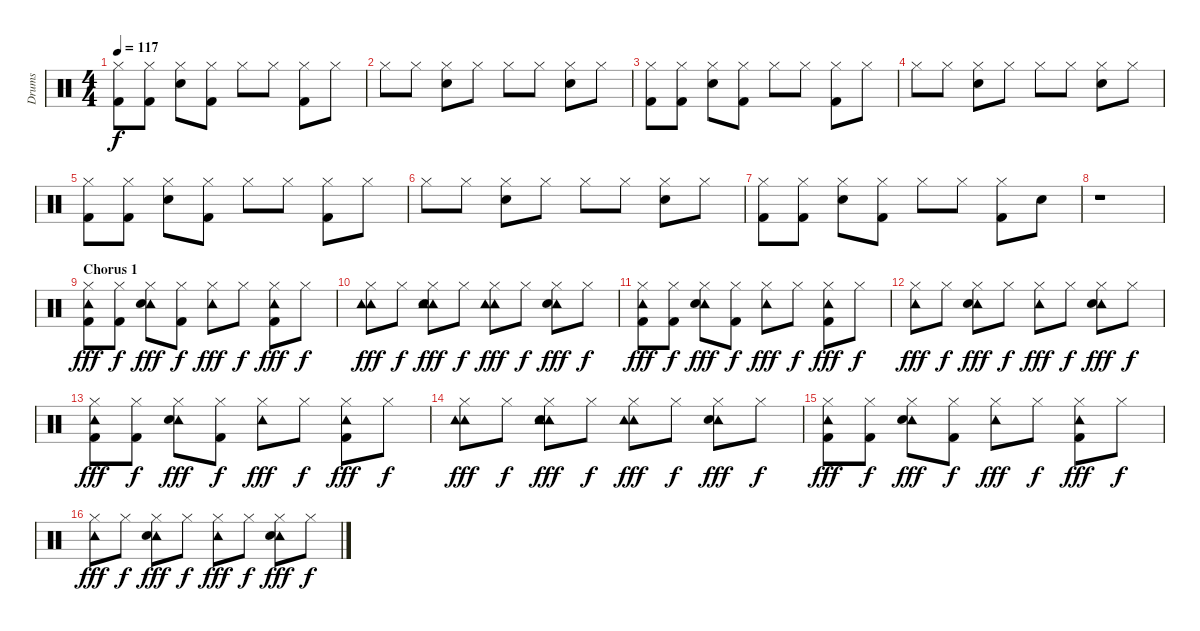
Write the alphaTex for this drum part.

\track ("Drums" "Drums") {instrument percussion}
\staff {score}
\articulation defaults
\ts (4 4)
\tempo 117
\clef neutral
\ks c
("Hi-Hat (closed)" "Kick (hit) 2").8{dy f} ("Hi-Hat (closed)" "Kick (hit) 2").8 ("Hi-Hat (closed)" "Snare (hit) 2").8 ("Hi-Hat (closed)" "Kick (hit) 2").8 "Hi-Hat (closed)".8 "Hi-Hat (closed)".8 ("Hi-Hat (closed)" "Kick (hit) 2").8 "Hi-Hat (closed)".8 |
"Hi-Hat (closed)".8 "Hi-Hat (closed)".8 ("Hi-Hat (closed)" "Snare (hit) 2").8 "Hi-Hat (closed)".8 "Hi-Hat (closed)".8 "Hi-Hat (closed)".8 ("Hi-Hat (closed)" "Snare (hit) 2").8 "Hi-Hat (closed)".8 |
("Hi-Hat (closed)" "Kick (hit) 2").8 ("Hi-Hat (closed)" "Kick (hit) 2").8 ("Hi-Hat (closed)" "Snare (hit) 2").8 ("Hi-Hat (closed)" "Kick (hit) 2").8 "Hi-Hat (closed)".8 "Hi-Hat (closed)".8 ("Hi-Hat (closed)" "Kick (hit) 2").8 "Hi-Hat (closed)".8 |
"Hi-Hat (closed)".8 "Hi-Hat (closed)".8 ("Hi-Hat (closed)" "Snare (hit) 2").8 "Hi-Hat (closed)".8 "Hi-Hat (closed)".8 "Hi-Hat (closed)".8 ("Hi-Hat (closed)" "Snare (hit) 2").8 "Hi-Hat (closed)".8 |
("Hi-Hat (closed)" "Kick (hit) 2").8 ("Hi-Hat (closed)" "Kick (hit) 2").8 ("Hi-Hat (closed)" "Snare (hit) 2").8 ("Hi-Hat (closed)" "Kick (hit) 2").8 "Hi-Hat (closed)".8 "Hi-Hat (closed)".8 ("Hi-Hat (closed)" "Kick (hit) 2").8 "Hi-Hat (closed)".8 |
"Hi-Hat (closed)".8 "Hi-Hat (closed)".8 ("Hi-Hat (closed)" "Snare (hit) 2").8 "Hi-Hat (closed)".8 "Hi-Hat (closed)".8 "Hi-Hat (closed)".8 ("Hi-Hat (closed)" "Snare (hit) 2").8 "Hi-Hat (closed)".8 |
("Hi-Hat (closed)" "Kick (hit) 2").8 ("Hi-Hat (closed)" "Kick (hit) 2").8 ("Hi-Hat (closed)" "Snare (hit) 2").8 ("Hi-Hat (closed)" "Kick (hit) 2").8 "Hi-Hat (closed)".8 "Hi-Hat (closed)".8 ("Hi-Hat (closed)" "Kick (hit) 2").8 "Snare (hit)".8 |
r.1 |
\section ("" "Chorus 1")
("Tambourine (hit)" "Hi-Hat (closed)" "Kick (hit) 2").8{dy fff} ("Hi-Hat (closed)" "Kick (hit) 2").8{dy f} ("Tambourine (hit)" "Hi-Hat (closed)" "Snare (hit) 2").8{dy fff} ("Hi-Hat (closed)" "Kick (hit) 2").8{dy f} ("Tambourine (hit)" "Hi-Hat (closed)").8{dy fff} "Hi-Hat (closed)".8{dy f} ("Tambourine (hit)" "Hi-Hat (closed)" "Kick (hit) 2").8{dy fff} "Hi-Hat (closed)".8{dy f} |
("Tambourine (hit)" "Tambourine (hit)" "Hi-Hat (closed)").8{dy fff} "Hi-Hat (closed)".8{dy f} ("Tambourine (hit)" "Tambourine (hit)" "Hi-Hat (closed)" "Snare (hit) 2").8{dy fff} "Hi-Hat (closed)".8{dy f} ("Tambourine (hit)" "Tambourine (hit)" "Hi-Hat (closed)").8{dy fff} "Hi-Hat (closed)".8{dy f} ("Tambourine (hit)" "Hi-Hat (closed)" "Snare (hit) 2").8{dy fff} "Hi-Hat (closed)".8{dy f} |
("Tambourine (hit)" "Hi-Hat (closed)" "Kick (hit) 2").8{dy fff} ("Hi-Hat (closed)" "Kick (hit) 2").8{dy f} ("Tambourine (hit)" "Hi-Hat (closed)" "Snare (hit) 2").8{dy fff} ("Hi-Hat (closed)" "Kick (hit) 2").8{dy f} ("Tambourine (hit)" "Hi-Hat (closed)").8{dy fff} "Hi-Hat (closed)".8{dy f} ("Tambourine (hit)" "Hi-Hat (closed)" "Kick (hit) 2").8{dy fff} "Hi-Hat (closed)".8{dy f} |
("Tambourine (hit)" "Hi-Hat (closed)").8{dy fff} "Hi-Hat (closed)".8{dy f} ("Tambourine (hit)" "Hi-Hat (closed)" "Snare (hit) 2").8{dy fff} "Hi-Hat (closed)".8{dy f} ("Tambourine (hit)" "Hi-Hat (closed)").8{dy fff} "Hi-Hat (closed)".8{dy f} ("Tambourine (hit)" "Hi-Hat (closed)" "Snare (hit) 2").8{dy fff} "Hi-Hat (closed)".8{dy f} |
("Tambourine (hit)" "Hi-Hat (closed)" "Kick (hit) 2").8{dy fff} ("Hi-Hat (closed)" "Kick (hit) 2").8{dy f} ("Tambourine (hit)" "Hi-Hat (closed)" "Snare (hit) 2").8{dy fff} ("Hi-Hat (closed)" "Kick (hit) 2").8{dy f} ("Tambourine (hit)" "Hi-Hat (closed)").8{dy fff} "Hi-Hat (closed)".8{dy f} ("Tambourine (hit)" "Hi-Hat (closed)" "Kick (hit) 2").8{dy fff} "Hi-Hat (closed)".8{dy f} |
("Tambourine (hit)" "Tambourine (hit)" "Hi-Hat (closed)").8{dy fff} "Hi-Hat (closed)".8{dy f} ("Tambourine (hit)" "Tambourine (hit)" "Hi-Hat (closed)" "Snare (hit) 2").8{dy fff} "Hi-Hat (closed)".8{dy f} ("Tambourine (hit)" "Tambourine (hit)" "Hi-Hat (closed)").8{dy fff} "Hi-Hat (closed)".8{dy f} ("Tambourine (hit)" "Hi-Hat (closed)" "Snare (hit) 2").8{dy fff} "Hi-Hat (closed)".8{dy f} |
("Tambourine (hit)" "Hi-Hat (closed)" "Kick (hit) 2").8{dy fff} ("Hi-Hat (closed)" "Kick (hit) 2").8{dy f} ("Tambourine (hit)" "Hi-Hat (closed)" "Snare (hit) 2").8{dy fff} ("Hi-Hat (closed)" "Kick (hit) 2").8{dy f} ("Tambourine (hit)" "Hi-Hat (closed)").8{dy fff} "Hi-Hat (closed)".8{dy f} ("Tambourine (hit)" "Hi-Hat (closed)" "Kick (hit) 2").8{dy fff} "Hi-Hat (closed)".8{dy f} |
("Tambourine (hit)" "Hi-Hat (closed)").8{dy fff} "Hi-Hat (closed)".8{dy f} ("Tambourine (hit)" "Hi-Hat (closed)" "Snare (hit) 2").8{dy fff} "Hi-Hat (closed)".8{dy f} ("Tambourine (hit)" "Hi-Hat (closed)").8{dy fff} "Hi-Hat (closed)".8{dy f} ("Tambourine (hit)" "Hi-Hat (closed)" "Snare (hit) 2").8{dy fff} "Hi-Hat (closed)".8{dy f}
